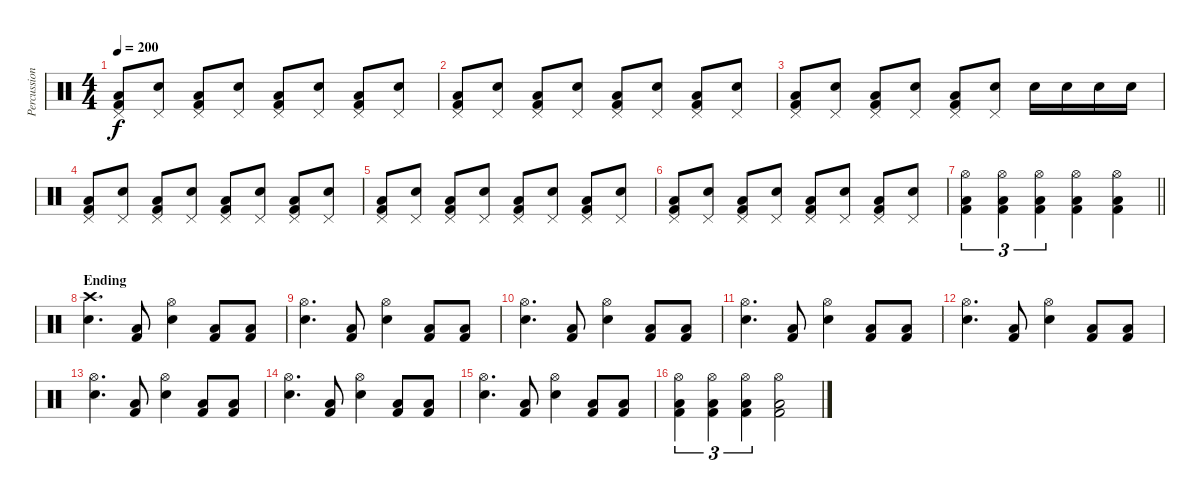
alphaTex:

\track ("Percussion" "Percussion") {instrument percussion}
\staff {score}
\articulation defaults
\ts (4 4)
\tempo 200
\clef neutral
\ks c
("Kick (hit) 2" "Low Floor Tom (hit)" "Pedal Hi-Hat (hit)").8{dy f} ("Electric Snare (hit)" "Pedal Hi-Hat (hit)").8 ("Kick (hit) 2" "Low Floor Tom (hit)" "Pedal Hi-Hat (hit)").8 ("Electric Snare (hit)" "Pedal Hi-Hat (hit)").8 ("Kick (hit) 2" "Low Floor Tom (hit)" "Pedal Hi-Hat (hit)").8 ("Electric Snare (hit)" "Pedal Hi-Hat (hit)").8 ("Kick (hit) 2" "Low Floor Tom (hit)" "Pedal Hi-Hat (hit)").8 ("Electric Snare (hit)" "Pedal Hi-Hat (hit)").8 |
("Kick (hit) 2" "Low Floor Tom (hit)" "Pedal Hi-Hat (hit)").8 ("Electric Snare (hit)" "Pedal Hi-Hat (hit)").8 ("Kick (hit) 2" "Low Floor Tom (hit)" "Pedal Hi-Hat (hit)").8 ("Electric Snare (hit)" "Pedal Hi-Hat (hit)").8 ("Kick (hit) 2" "Low Floor Tom (hit)" "Pedal Hi-Hat (hit)").8 ("Electric Snare (hit)" "Pedal Hi-Hat (hit)").8 ("Kick (hit) 2" "Low Floor Tom (hit)" "Pedal Hi-Hat (hit)").8 ("Electric Snare (hit)" "Pedal Hi-Hat (hit)").8 |
("Kick (hit) 2" "Low Floor Tom (hit)" "Pedal Hi-Hat (hit)").8 ("Electric Snare (hit)" "Pedal Hi-Hat (hit)").8 ("Kick (hit) 2" "Low Floor Tom (hit)" "Pedal Hi-Hat (hit)").8 ("Electric Snare (hit)" "Pedal Hi-Hat (hit)").8 ("Kick (hit) 2" "Low Floor Tom (hit)" "Pedal Hi-Hat (hit)").8 ("Electric Snare (hit)" "Pedal Hi-Hat (hit)").8 "Electric Snare (hit)".16 "Electric Snare (hit)".16 "Electric Snare (hit)".16 "Electric Snare (hit)".16 |
("Kick (hit) 2" "Low Floor Tom (hit)" "Pedal Hi-Hat (hit)").8 ("Electric Snare (hit)" "Pedal Hi-Hat (hit)").8 ("Kick (hit) 2" "Low Floor Tom (hit)" "Pedal Hi-Hat (hit)").8 ("Electric Snare (hit)" "Pedal Hi-Hat (hit)").8 ("Kick (hit) 2" "Low Floor Tom (hit)" "Pedal Hi-Hat (hit)").8 ("Electric Snare (hit)" "Pedal Hi-Hat (hit)").8 ("Kick (hit) 2" "Low Floor Tom (hit)" "Pedal Hi-Hat (hit)").8 ("Electric Snare (hit)" "Pedal Hi-Hat (hit)").8 |
("Kick (hit) 2" "Low Floor Tom (hit)" "Pedal Hi-Hat (hit)").8 ("Electric Snare (hit)" "Pedal Hi-Hat (hit)").8 ("Kick (hit) 2" "Low Floor Tom (hit)" "Pedal Hi-Hat (hit)").8 ("Electric Snare (hit)" "Pedal Hi-Hat (hit)").8 ("Kick (hit) 2" "Low Floor Tom (hit)" "Pedal Hi-Hat (hit)").8 ("Electric Snare (hit)" "Pedal Hi-Hat (hit)").8 ("Kick (hit) 2" "Low Floor Tom (hit)" "Pedal Hi-Hat (hit)").8 ("Electric Snare (hit)" "Pedal Hi-Hat (hit)").8 |
("Kick (hit) 2" "Low Floor Tom (hit)" "Pedal Hi-Hat (hit)").8 ("Electric Snare (hit)" "Pedal Hi-Hat (hit)").8 ("Kick (hit) 2" "Low Floor Tom (hit)" "Pedal Hi-Hat (hit)").8 ("Electric Snare (hit)" "Pedal Hi-Hat (hit)").8 ("Kick (hit) 2" "Low Floor Tom (hit)" "Pedal Hi-Hat (hit)").8 ("Electric Snare (hit)" "Pedal Hi-Hat (hit)").8 ("Kick (hit) 2" "Low Floor Tom (hit)" "Pedal Hi-Hat (hit)").8 ("Electric Snare (hit)" "Pedal Hi-Hat (hit)").8 |
\barLineRight lightlight
("Kick (hit) 2" "Low Floor Tom (hit)" "Hi-Hat (open)").4{tu (3 2)} ("Kick (hit) 2" "Low Floor Tom (hit)" "Hi-Hat (open)").4{tu (3 2)} ("Kick (hit) 2" "Low Floor Tom (hit)" "Hi-Hat (open)").4{tu (3 2)} ("Kick (hit) 2" "Low Floor Tom (hit)" "Hi-Hat (open)").4 ("Kick (hit) 2" "Low Floor Tom (hit)" "Hi-Hat (open)").4 |
\section ("" "Ending")
("Electric Snare (hit)" "Crash high (hit)").4{d} ("Kick (hit) 2" "Low Floor Tom (hit)").8 ("Electric Snare (hit)" "Hi-Hat (open)").4 ("Kick (hit) 2" "Low Floor Tom (hit)").8 ("Kick (hit) 2" "Low Floor Tom (hit)").8 |
("Electric Snare (hit)" "Hi-Hat (open)").4{d} ("Kick (hit) 2" "Low Floor Tom (hit)").8 ("Electric Snare (hit)" "Hi-Hat (open)").4 ("Kick (hit) 2" "Low Floor Tom (hit)").8 ("Kick (hit) 2" "Low Floor Tom (hit)").8 |
("Electric Snare (hit)" "Hi-Hat (open)").4{d} ("Kick (hit) 2" "Low Floor Tom (hit)").8 ("Electric Snare (hit)" "Hi-Hat (open)").4 ("Kick (hit) 2" "Low Floor Tom (hit)").8 ("Kick (hit) 2" "Low Floor Tom (hit)").8 |
("Electric Snare (hit)" "Hi-Hat (open)").4{d} ("Kick (hit) 2" "Low Floor Tom (hit)").8 ("Electric Snare (hit)" "Hi-Hat (open)").4 ("Kick (hit) 2" "Low Floor Tom (hit)").8 ("Kick (hit) 2" "Low Floor Tom (hit)").8 |
("Electric Snare (hit)" "Hi-Hat (open)").4{d} ("Kick (hit) 2" "Low Floor Tom (hit)").8 ("Electric Snare (hit)" "Hi-Hat (open)").4 ("Kick (hit) 2" "Low Floor Tom (hit)").8 ("Kick (hit) 2" "Low Floor Tom (hit)").8 |
("Electric Snare (hit)" "Hi-Hat (open)").4{d} ("Kick (hit) 2" "Low Floor Tom (hit)").8 ("Electric Snare (hit)" "Hi-Hat (open)").4 ("Kick (hit) 2" "Low Floor Tom (hit)").8 ("Kick (hit) 2" "Low Floor Tom (hit)").8 |
("Electric Snare (hit)" "Hi-Hat (open)").4{d} ("Kick (hit) 2" "Low Floor Tom (hit)").8 ("Electric Snare (hit)" "Hi-Hat (open)").4 ("Kick (hit) 2" "Low Floor Tom (hit)").8 ("Kick (hit) 2" "Low Floor Tom (hit)").8 |
("Electric Snare (hit)" "Hi-Hat (open)").4{d} ("Kick (hit) 2" "Low Floor Tom (hit)").8 ("Electric Snare (hit)" "Hi-Hat (open)").4 ("Kick (hit) 2" "Low Floor Tom (hit)").8 ("Kick (hit) 2" "Low Floor Tom (hit)").8 |
("Kick (hit) 2" "Low Floor Tom (hit)" "Hi-Hat (open)").4{tu (3 2)} ("Kick (hit) 2" "Low Floor Tom (hit)" "Hi-Hat (open)").4{tu (3 2)} ("Kick (hit) 2" "Low Floor Tom (hit)" "Hi-Hat (open)").4{tu (3 2)} ("Kick (hit) 2" "Low Floor Tom (hit)" "Hi-Hat (open)").2
